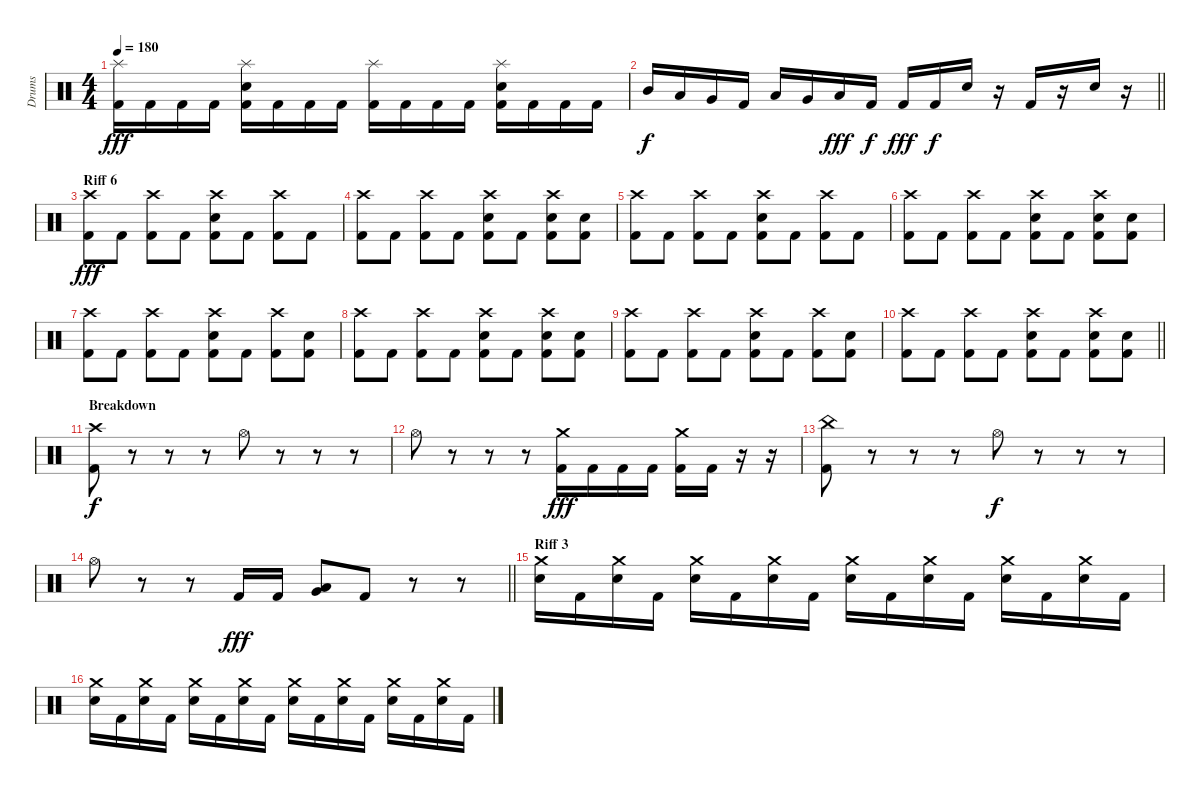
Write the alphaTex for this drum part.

\track ("Drums" "Drums") {instrument percussion}
\staff {score}
\articulation defaults
\ts (4 4)
\tempo 180
\clef neutral
\ks c
("Splash (hit)" "Kick (hit) 2").16{dy fff} "Kick (hit) 2".16 "Kick (hit) 2".16 "Kick (hit) 2".16 ("Splash (hit)" "Electric Snare (hit)" "Kick (hit) 2").16 "Kick (hit) 2".16 "Kick (hit) 2".16 "Kick (hit) 2".16 ("Splash (hit)" "Kick (hit) 2").16 "Kick (hit) 2".16 "Kick (hit) 2".16 "Kick (hit) 2".16 ("Splash (hit)" "Electric Snare (hit)" "Kick (hit) 2").16 "Kick (hit) 2".16 "Kick (hit) 2".16 "Kick (hit) 2".16 |
\barLineRight lightlight "Mid Tom (hit)".16{dy f} "Low Tom (hit)".16 "Very Low Tom (hit)".16 "Kick (hit) 2".16 "Low Tom (hit)".16 "Very Low Tom (hit)".16 "Low Floor Tom (hit)".16{dy fff} "Kick (hit) 2".16{dy f} "Kick (hit) 2".16{dy fff} "Kick (hit) 2".16{dy f} "Electric Snare (hit)".16
r.16 "Kick (hit) 2".16 r.16 "Electric Snare (hit)".16 r.16 |
\section ("" "Riff 6")
("Crash high (hit)" "Kick (hit) 2").8{dy fff} "Kick (hit) 2".8 ("Crash high (hit)" "Kick (hit) 2").8 "Kick (hit) 2".8 ("Crash high (hit)" "Electric Snare (hit)" "Kick (hit) 2").8 "Kick (hit) 2".8 ("Crash high (hit)" "Kick (hit) 2").8 "Kick (hit) 2".8 |
("Crash high (hit)" "Kick (hit) 2").8 "Kick (hit) 2".8 ("Crash high (hit)" "Kick (hit) 2").8 "Kick (hit) 2".8 ("Crash high (hit)" "Electric Snare (hit)" "Kick (hit) 2").8 "Kick (hit) 2".8 ("Crash high (hit)" "Electric Snare (hit)" "Kick (hit) 2").8 ("Electric Snare (hit)" "Kick (hit) 2").8 |
("Crash high (hit)" "Kick (hit) 2").8 "Kick (hit) 2".8 ("Crash high (hit)" "Kick (hit) 2").8 "Kick (hit) 2".8 ("Crash high (hit)" "Electric Snare (hit)" "Kick (hit) 2").8 "Kick (hit) 2".8 ("Crash high (hit)" "Kick (hit) 2").8 "Kick (hit) 2".8 |
("Crash high (hit)" "Kick (hit) 2").8 "Kick (hit) 2".8 ("Crash high (hit)" "Kick (hit) 2").8 "Kick (hit) 2".8 ("Crash high (hit)" "Electric Snare (hit)" "Kick (hit) 2").8 "Kick (hit) 2".8 ("Crash high (hit)" "Electric Snare (hit)" "Kick (hit) 2").8 ("Electric Snare (hit)" "Kick (hit) 2").8 |
("Crash high (hit)" "Kick (hit) 2").8 "Kick (hit) 2".8 ("Crash high (hit)" "Kick (hit) 2").8 "Kick (hit) 2".8 ("Crash high (hit)" "Electric Snare (hit)" "Kick (hit) 2").8 "Kick (hit) 2".8 ("Crash high (hit)" "Kick (hit) 2").8 ("Electric Snare (hit)" "Kick (hit) 2").8 |
("Crash high (hit)" "Kick (hit) 2").8 "Kick (hit) 2".8 ("Crash high (hit)" "Kick (hit) 2").8 "Kick (hit) 2".8 ("Crash high (hit)" "Electric Snare (hit)" "Kick (hit) 2").8 "Kick (hit) 2".8 ("Crash high (hit)" "Electric Snare (hit)" "Kick (hit) 2").8 ("Electric Snare (hit)" "Kick (hit) 2").8 |
("Crash high (hit)" "Kick (hit) 2").8 "Kick (hit) 2".8 ("Crash high (hit)" "Kick (hit) 2").8 "Kick (hit) 2".8 ("Crash high (hit)" "Electric Snare (hit)" "Kick (hit) 2").8 "Kick (hit) 2".8 ("Crash high (hit)" "Kick (hit) 2").8 ("Electric Snare (hit)" "Kick (hit) 2").8 |
\barLineRight lightlight
("Crash high (hit)" "Kick (hit) 2").8 "Kick (hit) 2".8 ("Crash high (hit)" "Kick (hit) 2").8 "Kick (hit) 2".8 ("Crash high (hit)" "Electric Snare (hit)" "Kick (hit) 2").8 "Kick (hit) 2".8 ("Crash high (hit)" "Electric Snare (hit)" "Kick (hit) 2").8 ("Electric Snare (hit)" "Kick (hit) 2").8 |
\section ("" "Breakdown")
("Crash high (hit)" "Kick (hit) 2").8{dy f} r.8 r.8 r.8 "Hi-Hat (open)".8 r.8 r.8 r.8 |
"Hi-Hat (open)".8 r.8 r.8 r.8 ("Crash medium (hit)" "Kick (hit) 2").16{dy fff} "Kick (hit) 2".16 "Kick (hit) 2".16 "Kick (hit) 2".16 ("Crash medium (hit)" "Kick (hit) 2").16 "Kick (hit) 2".16 r.16 r.16 |
("China (hit)" "Kick (hit) 2").8 r.8 r.8 r.8 "Hi-Hat (open)".8{dy f} r.8 r.8 r.8 |
\barLineRight lightlight "Hi-Hat (open)".8
r.8 r.8 "Kick (hit) 2".16{dy fff} "Kick (hit) 2".16 ("Very Low Tom (hit)" "Low Floor Tom (hit)").8 "Kick (hit) 2".8 r.8 r.8 |
\section ("" "Riff 3")
("Crash medium (hit)" "Electric Snare (hit)").16 "Kick (hit) 2".16 ("Crash medium (hit)" "Electric Snare (hit)").16 "Kick (hit) 2".16 ("Crash medium (hit)" "Electric Snare (hit)").16 "Kick (hit) 2".16 ("Crash medium (hit)" "Electric Snare (hit)").16 "Kick (hit) 2".16 ("Crash medium (hit)" "Electric Snare (hit)").16 "Kick (hit) 2".16 ("Crash medium (hit)" "Electric Snare (hit)").16 "Kick (hit) 2".16 ("Crash medium (hit)" "Electric Snare (hit)").16 "Kick (hit) 2".16 ("Crash medium (hit)" "Electric Snare (hit)").16 "Kick (hit) 2".16 |
("Crash medium (hit)" "Electric Snare (hit)").16 "Kick (hit) 2".16 ("Crash medium (hit)" "Electric Snare (hit)").16 "Kick (hit) 2".16 ("Crash medium (hit)" "Electric Snare (hit)").16 "Kick (hit) 2".16 ("Crash medium (hit)" "Electric Snare (hit)").16 "Kick (hit) 2".16 ("Crash medium (hit)" "Electric Snare (hit)").16 "Kick (hit) 2".16 ("Crash medium (hit)" "Electric Snare (hit)").16 "Kick (hit) 2".16 ("Crash medium (hit)" "Electric Snare (hit)").16 "Kick (hit) 2".16 ("Crash medium (hit)" "Electric Snare (hit)").16 "Kick (hit) 2".16
